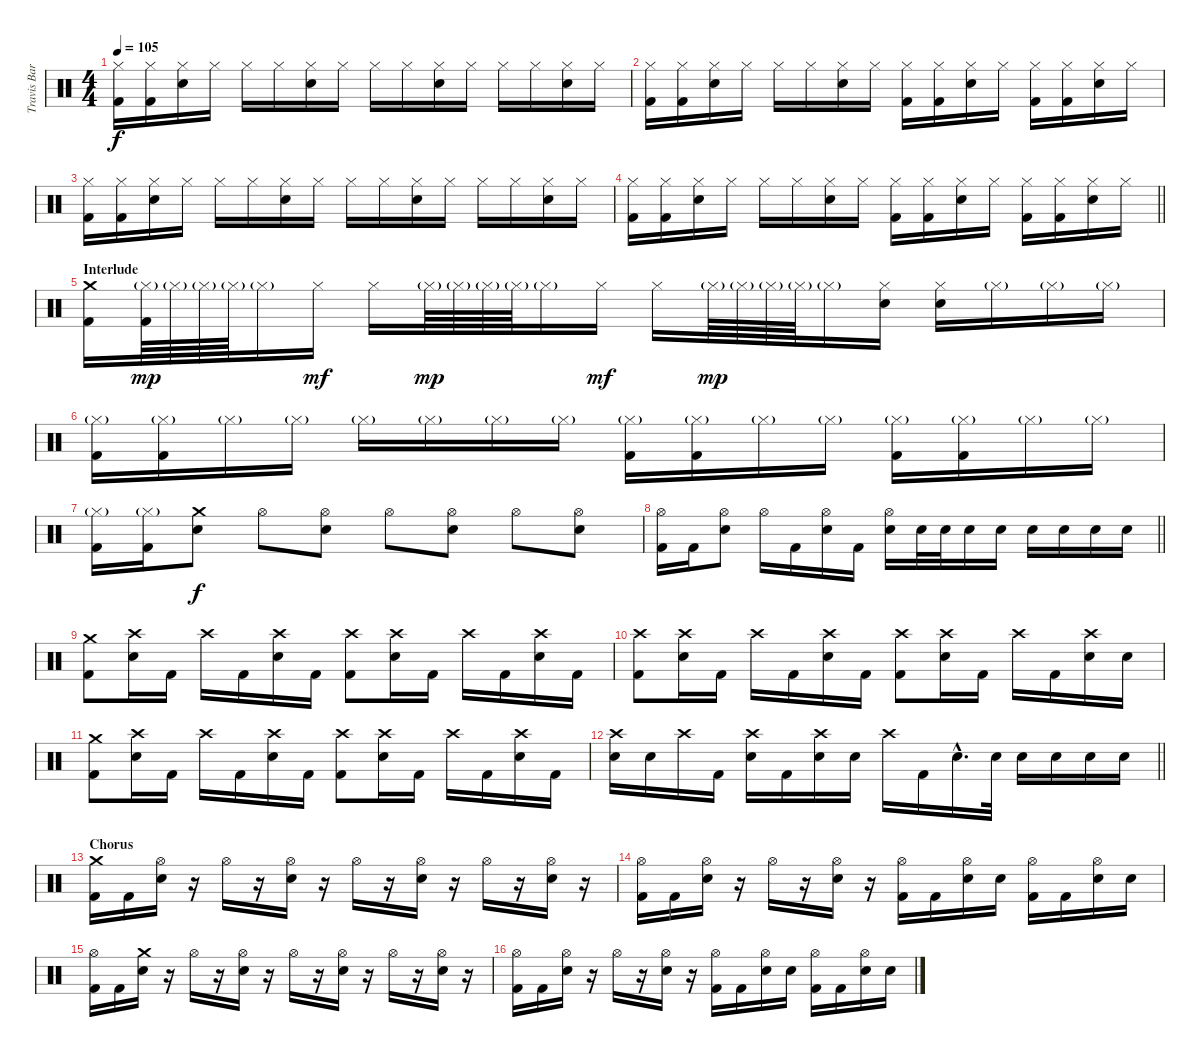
\track ("Travis Barker" "Travis Bar") {instrument percussion}
\staff {score}
\articulation defaults
\ts (4 4)
\tempo 105
\clef neutral
\ks c
("Hi-Hat (closed)" "Kick (hit) 2").16{dy f} ("Hi-Hat (closed)" "Kick (hit) 2").16 ("Hi-Hat (closed)" "Electric Snare (hit)").16 "Hi-Hat (closed)".16 "Hi-Hat (closed)".16 "Hi-Hat (closed)".16 ("Hi-Hat (closed)" "Electric Snare (hit)").16 "Hi-Hat (closed)".16 "Hi-Hat (closed)".16 "Hi-Hat (closed)".16 ("Hi-Hat (closed)" "Electric Snare (hit)").16 "Hi-Hat (closed)".16 "Hi-Hat (closed)".16 "Hi-Hat (closed)".16 ("Hi-Hat (closed)" "Electric Snare (hit)").16 "Hi-Hat (closed)".16 |
("Hi-Hat (closed)" "Kick (hit) 2").16 ("Hi-Hat (closed)" "Kick (hit) 2").16 ("Hi-Hat (closed)" "Electric Snare (hit)").16 "Hi-Hat (closed)".16 "Hi-Hat (closed)".16 "Hi-Hat (closed)".16 ("Hi-Hat (closed)" "Electric Snare (hit)").16 "Hi-Hat (closed)".16 ("Hi-Hat (closed)" "Kick (hit) 2").16 ("Hi-Hat (closed)" "Kick (hit) 2").16 ("Hi-Hat (closed)" "Electric Snare (hit)").16 "Hi-Hat (closed)".16 ("Hi-Hat (closed)" "Kick (hit) 2").16 ("Hi-Hat (closed)" "Kick (hit) 2").16 ("Hi-Hat (closed)" "Electric Snare (hit)").16 "Hi-Hat (closed)".16 |
("Hi-Hat (closed)" "Kick (hit) 2").16 ("Hi-Hat (closed)" "Kick (hit) 2").16 ("Hi-Hat (closed)" "Electric Snare (hit)").16 "Hi-Hat (closed)".16 "Hi-Hat (closed)".16 "Hi-Hat (closed)".16 ("Hi-Hat (closed)" "Electric Snare (hit)").16 "Hi-Hat (closed)".16 "Hi-Hat (closed)".16 "Hi-Hat (closed)".16 ("Hi-Hat (closed)" "Electric Snare (hit)").16 "Hi-Hat (closed)".16 "Hi-Hat (closed)".16 "Hi-Hat (closed)".16 ("Hi-Hat (closed)" "Electric Snare (hit)").16 "Hi-Hat (closed)".16 |
\barLineRight lightlight
("Hi-Hat (closed)" "Kick (hit) 2").16 ("Hi-Hat (closed)" "Kick (hit) 2").16 ("Hi-Hat (closed)" "Electric Snare (hit)").16 "Hi-Hat (closed)".16 "Hi-Hat (closed)".16 "Hi-Hat (closed)".16 ("Hi-Hat (closed)" "Electric Snare (hit)").16 "Hi-Hat (closed)".16 ("Hi-Hat (closed)" "Kick (hit) 2").16 ("Hi-Hat (closed)" "Kick (hit) 2").16 ("Hi-Hat (closed)" "Electric Snare (hit)").16 "Hi-Hat (closed)".16 ("Hi-Hat (closed)" "Kick (hit) 2").16 ("Hi-Hat (closed)" "Kick (hit) 2").16 ("Hi-Hat (closed)" "Electric Snare (hit)").16 "Hi-Hat (closed)".16 |
\section ("" "Interlude")
("Crash medium (hit)" "Kick (hit) 2").16 ("Hi-Hat (closed)"{g} "Kick (hit) 2").64{dy mp} "Hi-Hat (closed)"{g}.64 "Hi-Hat (closed)"{g}.64 "Hi-Hat (closed)"{g}.64 "Hi-Hat (closed)"{g}.16 "Hi-Hat (closed)".16{dy mf} "Hi-Hat (closed)".16 "Hi-Hat (closed)"{g}.64{dy mp} "Hi-Hat (closed)"{g}.64 "Hi-Hat (closed)"{g}.64 "Hi-Hat (closed)"{g}.64 "Hi-Hat (closed)"{g}.16 "Hi-Hat (closed)".16{dy mf} "Hi-Hat (closed)".16 "Hi-Hat (closed)"{g}.64{dy mp} "Hi-Hat (closed)"{g}.64 "Hi-Hat (closed)"{g}.64 "Hi-Hat (closed)"{g}.64 "Hi-Hat (closed)"{g}.16 ("Hi-Hat (closed)" "Electric Snare (hit)").16 ("Hi-Hat (closed)" "Electric Snare (hit)").16 "Hi-Hat (closed)"{g}.16 "Hi-Hat (closed)"{g}.16 "Hi-Hat (closed)"{g}.16 |
("Hi-Hat (closed)"{g} "Kick (hit) 2").16 ("Hi-Hat (closed)"{g} "Kick (hit) 2").16 "Hi-Hat (closed)"{g}.16 "Hi-Hat (closed)"{g}.16 "Hi-Hat (closed)"{g}.16 "Hi-Hat (closed)"{g}.16 "Hi-Hat (closed)"{g}.16 "Hi-Hat (closed)"{g}.16 ("Hi-Hat (closed)"{g} "Kick (hit) 2").16 ("Hi-Hat (closed)"{g} "Kick (hit) 2").16 "Hi-Hat (closed)"{g}.16 "Hi-Hat (closed)"{g}.16 ("Hi-Hat (closed)"{g} "Kick (hit) 2").16 ("Hi-Hat (closed)"{g} "Kick (hit) 2").16 "Hi-Hat (closed)"{g}.16 "Hi-Hat (closed)"{g}.16 |
("Hi-Hat (closed)"{g} "Kick (hit) 2").16 ("Hi-Hat (closed)"{g} "Kick (hit) 2").16 ("Crash medium (hit)" "Electric Snare (hit)").8{dy f} "Hi-Hat (open)".8 ("Hi-Hat (open)" "Electric Snare (hit)").8 "Hi-Hat (open)".8 ("Hi-Hat (open)" "Electric Snare (hit)").8 "Hi-Hat (open)".8 ("Hi-Hat (open)" "Electric Snare (hit)").8 |
\barLineRight lightlight
("Hi-Hat (open)" "Kick (hit) 2").16 "Kick (hit) 2".16 ("Hi-Hat (open)" "Electric Snare (hit)").8 "Hi-Hat (open)".16 "Kick (hit) 2".16 ("Hi-Hat (open)" "Electric Snare (hit)").16 "Kick (hit) 2".16 ("Hi-Hat (open)" "Electric Snare (hit)").16 "Electric Snare (hit)".32 "Electric Snare (hit)".32 "Electric Snare (hit)".16 "Electric Snare (hit)".16 "Electric Snare (hit)".16 "Electric Snare (hit)".16 "Electric Snare (hit)".16 "Electric Snare (hit)".16 |
\section ("" "")
("Crash medium (hit)" "Kick (hit) 2").8 ("Crash high (hit)" "Electric Snare (hit)").16 "Kick (hit) 2".16 "Crash high (hit)".16 "Kick (hit) 2".16 ("Crash high (hit)" "Electric Snare (hit)").16 "Kick (hit) 2".16 ("Crash high (hit)" "Kick (hit) 2").8 ("Crash high (hit)" "Electric Snare (hit)").16 "Kick (hit) 2".16 "Crash high (hit)".16 "Kick (hit) 2".16 ("Crash high (hit)" "Electric Snare (hit)").16 "Kick (hit) 2".16 |
("Crash high (hit)" "Kick (hit) 2").8 ("Crash high (hit)" "Electric Snare (hit)").16 "Kick (hit) 2".16 "Crash high (hit)".16 "Kick (hit) 2".16 ("Crash high (hit)" "Electric Snare (hit)").16 "Kick (hit) 2".16 ("Crash high (hit)" "Kick (hit) 2").8 ("Crash high (hit)" "Electric Snare (hit)").16 "Kick (hit) 2".16 "Crash high (hit)".16 "Kick (hit) 2".16 ("Crash high (hit)" "Electric Snare (hit)").16 "Electric Snare (hit)".16 |
("Crash medium (hit)" "Kick (hit) 2").8 ("Crash high (hit)" "Electric Snare (hit)").16 "Kick (hit) 2".16 "Crash high (hit)".16 "Kick (hit) 2".16 ("Crash high (hit)" "Electric Snare (hit)").16 "Kick (hit) 2".16 ("Crash high (hit)" "Kick (hit) 2").8 ("Crash high (hit)" "Electric Snare (hit)").16 "Kick (hit) 2".16 "Crash high (hit)".16 "Kick (hit) 2".16 ("Crash high (hit)" "Electric Snare (hit)").16 "Kick (hit) 2".16 |
\barLineRight lightlight
("Crash high (hit)" "Electric Snare (hit)").16 "Electric Snare (hit)".16 "Crash high (hit)".16 "Kick (hit) 2".16 ("Crash high (hit)" "Electric Snare (hit)").16 "Kick (hit) 2".16 ("Crash high (hit)" "Electric Snare (hit)").16 "Electric Snare (hit)".16 "Crash high (hit)".16 "Kick (hit) 2".16 "Electric Snare (hit)"{hac}.16{d} "Electric Snare (hit)".32 "Electric Snare (hit)".16 "Electric Snare (hit)".16 "Electric Snare (hit)".16 "Electric Snare (hit)".16 |
\section ("" "Chorus")
("Crash medium (hit)" "Kick (hit) 2").16 "Kick (hit) 2".16 ("Hi-Hat (open)" "Electric Snare (hit)").16 r.16 "Hi-Hat (open)".16 r.16 ("Hi-Hat (open)" "Electric Snare (hit)").16 r.16 "Hi-Hat (open)".16 r.16 ("Hi-Hat (open)" "Electric Snare (hit)").16 r.16 "Hi-Hat (open)".16 r.16 ("Hi-Hat (open)" "Electric Snare (hit)").16 r.16 |
("Hi-Hat (open)" "Kick (hit) 2").16 "Kick (hit) 2".16 ("Hi-Hat (open)" "Electric Snare (hit)").16 r.16 "Hi-Hat (open)".16 r.16 ("Hi-Hat (open)" "Electric Snare (hit)").16 r.16 ("Hi-Hat (open)" "Kick (hit) 2").16 "Kick (hit) 2".16 ("Hi-Hat (open)" "Electric Snare (hit)").16 "Electric Snare (hit)".16 ("Hi-Hat (open)" "Kick (hit) 2").16 "Kick (hit) 2".16 ("Hi-Hat (open)" "Electric Snare (hit)").16 "Electric Snare (hit)".16 |
("Hi-Hat (open)" "Kick (hit) 2").16 "Kick (hit) 2".16 ("Crash medium (hit)" "Electric Snare (hit)").16 r.16 "Hi-Hat (open)".16 r.16 ("Hi-Hat (open)" "Electric Snare (hit)").16 r.16 "Hi-Hat (open)".16 r.16 ("Hi-Hat (open)" "Electric Snare (hit)").16 r.16 "Hi-Hat (open)".16 r.16 ("Hi-Hat (open)" "Electric Snare (hit)").16 r.16 |
("Hi-Hat (open)" "Kick (hit) 2").16 "Kick (hit) 2".16 ("Hi-Hat (open)" "Electric Snare (hit)").16 r.16 "Hi-Hat (open)".16 r.16 ("Hi-Hat (open)" "Electric Snare (hit)").16 r.16 ("Hi-Hat (open)" "Kick (hit) 2").16 "Kick (hit) 2".16 ("Hi-Hat (open)" "Electric Snare (hit)").16 "Electric Snare (hit)".16 ("Hi-Hat (open)" "Kick (hit) 2").16 "Kick (hit) 2".16 ("Hi-Hat (open)" "Electric Snare (hit)").16 "Electric Snare (hit)".16
